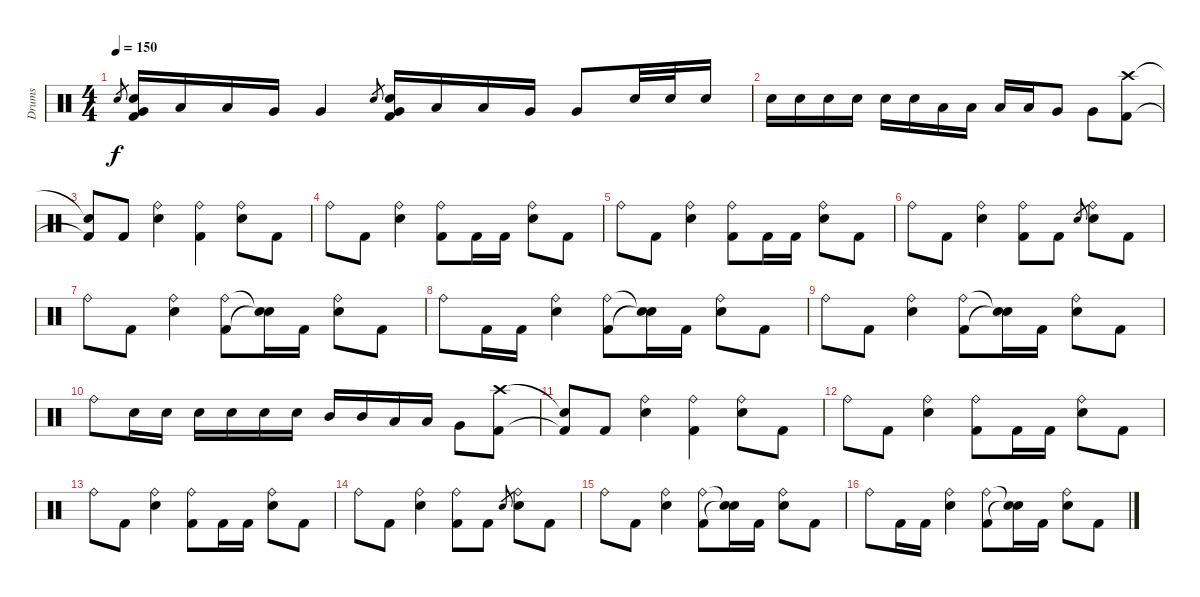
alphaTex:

\track ("Drums" "Drums") {instrument percussion}
\staff {score}
\articulation defaults
\ts (4 4)
\tempo 150
\clef neutral
\ks c "Electric Snare (hit)".8{gr dy f}
("Very Low Tom (hit)" "Electric Snare (hit)" "Kick (hit) 2").16 "Low Tom (hit)".16 "Low Tom (hit)".16 "Very Low Tom (hit)".16 "Very Low Tom (hit)".4 "Electric Snare (hit)".8{gr} ("Very Low Tom (hit)" "Electric Snare (hit)" "Kick (hit) 2").16 "Low Tom (hit)".16 "Low Tom (hit)".16 "Very Low Tom (hit)".16 "Very Low Tom (hit)".8 "Electric Snare (hit)".32 "Electric Snare (hit)".32 "Electric Snare (hit)".16 |
"Electric Snare (hit)".16 "Electric Snare (hit)".16 "Electric Snare (hit)".16 "Electric Snare (hit)".16 "Electric Snare (hit)".16 "Electric Snare (hit)".16 "Low Tom (hit)".16 "Low Tom (hit)".16 "Low Tom (hit)".16 "Low Tom (hit)".16 "Very Low Tom (hit)".8 "Very Low Tom (hit)".8 ("Crash high (hit)" "Kick (hit) 2").8 |
("Snare (hit)"{t} "Kick (hit) 2"{t}).8 "Kick (hit) 2".8 ("Ride (bell)" "Electric Snare (hit)").4 ("Ride (bell)" "Kick (hit) 2").4 ("Ride (bell)" "Electric Snare (hit)").8 "Kick (hit) 2".8 |
"Ride (bell)".8 "Kick (hit) 2".8 ("Ride (bell)" "Electric Snare (hit)").4 ("Ride (bell)" "Kick (hit) 2").8 "Kick (hit) 2".16 "Kick (hit) 2".16 ("Ride (bell)" "Electric Snare (hit)").8 "Kick (hit) 2".8 |
"Ride (bell)".8 "Kick (hit) 2".8 ("Ride (bell)" "Electric Snare (hit)").4 ("Ride (bell)" "Kick (hit) 2").8 "Kick (hit) 2".16 "Kick (hit) 2".16 ("Ride (bell)" "Electric Snare (hit)").8 "Kick (hit) 2".8 |
"Ride (bell)".8 "Kick (hit) 2".8 ("Ride (bell)" "Electric Snare (hit)").4 ("Ride (bell)" "Kick (hit) 2").8 "Kick (hit) 2".8 "Electric Snare (hit)".8{gr} ("Ride (bell)" "Electric Snare (hit)").8 "Kick (hit) 2".8 |
"Ride (bell)".8 "Kick (hit) 2".8 ("Ride (bell)" "Electric Snare (hit)").4 ("Ride (bell)" "Kick (hit) 2").8 ("Snare (hit)"{t} "Snare (hit)"{t}).16 "Kick (hit) 2".16 ("Ride (bell)" "Electric Snare (hit)").8 "Kick (hit) 2".8 |
"Ride (bell)".8 "Kick (hit) 2".16 "Kick (hit) 2".16 ("Ride (bell)" "Electric Snare (hit)").4 ("Ride (bell)" "Kick (hit) 2").8 ("Snare (hit)"{t} "Snare (hit)"{t}).16 "Kick (hit) 2".16 ("Ride (bell)" "Electric Snare (hit)").8 "Kick (hit) 2".8 |
"Ride (bell)".8 "Kick (hit) 2".8 ("Ride (bell)" "Electric Snare (hit)").4 ("Ride (bell)" "Kick (hit) 2").8 ("Snare (hit)"{t} "Snare (hit)"{t}).16 "Kick (hit) 2".16 ("Ride (bell)" "Electric Snare (hit)").8 "Kick (hit) 2".8 |
"Ride (bell)".8 "Electric Snare (hit)".16 "Electric Snare (hit)".16 "Electric Snare (hit)".16 "Electric Snare (hit)".16 "Electric Snare (hit)".16 "Electric Snare (hit)".16 "Mid Tom (hit)".16 "Mid Tom (hit)".16 "Low Tom (hit)".16 "Low Tom (hit)".16 "Very Low Tom (hit)".8 ("Crash high (hit)" "Kick (hit) 2").8 |
("Snare (hit)"{t} "Kick (hit) 2"{t}).8 "Kick (hit) 2".8 ("Ride (bell)" "Electric Snare (hit)").4 ("Ride (bell)" "Kick (hit) 2").4 ("Ride (bell)" "Electric Snare (hit)").8 "Kick (hit) 2".8 |
"Ride (bell)".8 "Kick (hit) 2".8 ("Ride (bell)" "Electric Snare (hit)").4 ("Ride (bell)" "Kick (hit) 2").8 "Kick (hit) 2".16 "Kick (hit) 2".16 ("Ride (bell)" "Electric Snare (hit)").8 "Kick (hit) 2".8 |
"Ride (bell)".8 "Kick (hit) 2".8 ("Ride (bell)" "Electric Snare (hit)").4 ("Ride (bell)" "Kick (hit) 2").8 "Kick (hit) 2".16 "Kick (hit) 2".16 ("Ride (bell)" "Electric Snare (hit)").8 "Kick (hit) 2".8 |
"Ride (bell)".8 "Kick (hit) 2".8 ("Ride (bell)" "Electric Snare (hit)").4 ("Ride (bell)" "Kick (hit) 2").8 "Kick (hit) 2".8 "Electric Snare (hit)".8{gr} ("Ride (bell)" "Electric Snare (hit)").8 "Kick (hit) 2".8 |
"Ride (bell)".8 "Kick (hit) 2".8 ("Ride (bell)" "Electric Snare (hit)").4 ("Ride (bell)" "Kick (hit) 2").8 ("Snare (hit)"{t} "Snare (hit)"{t}).16 "Kick (hit) 2".16 ("Ride (bell)" "Electric Snare (hit)").8 "Kick (hit) 2".8 |
"Ride (bell)".8 "Kick (hit) 2".16 "Kick (hit) 2".16 ("Ride (bell)" "Electric Snare (hit)").4 ("Ride (bell)" "Kick (hit) 2").8 ("Snare (hit)"{t} "Snare (hit)"{t}).16 "Kick (hit) 2".16 ("Ride (bell)" "Electric Snare (hit)").8 "Kick (hit) 2".8
